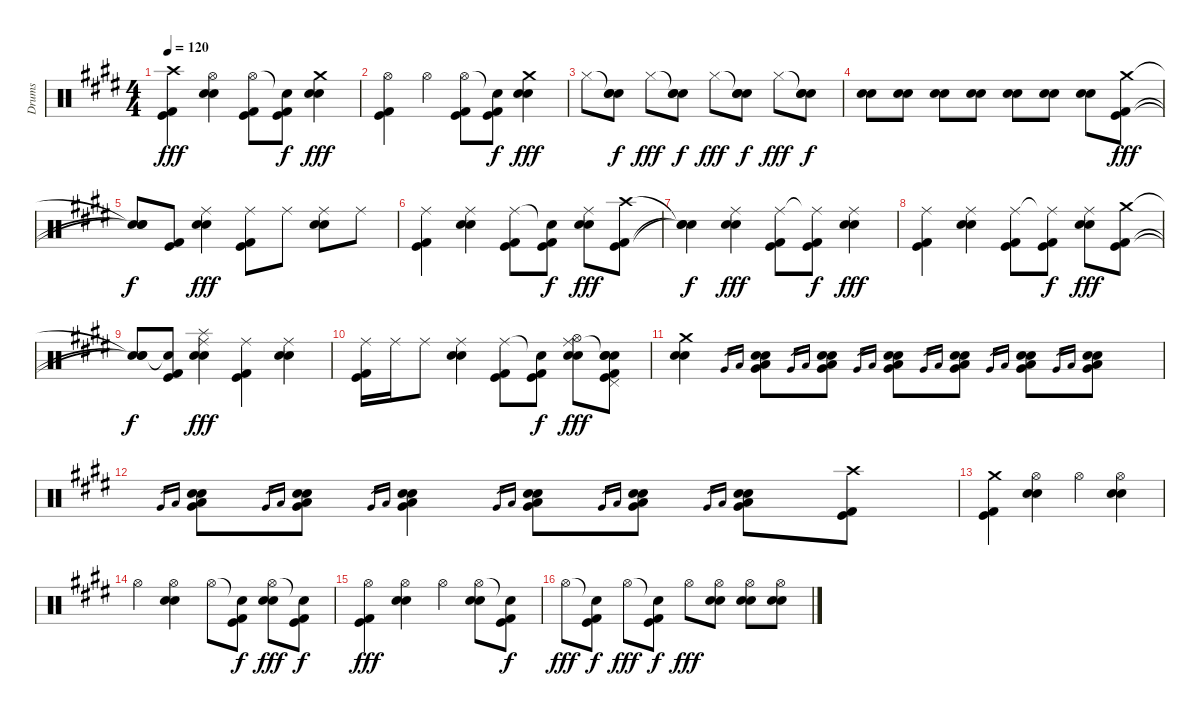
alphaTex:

\track ("Drums" "Drums") {instrument percussion}
\staff {score}
\articulation defaults
\ts (4 4)
\tempo 120
\clef neutral
\ks e
("Crash high (hit)" "Kick (hit)" "Kick (hit) 2").4{dy fff} ("Hi-Hat (open)" "Electric Snare (hit)" "Snare (hit) 2").4 ("Hi-Hat (open)" "Kick (hit)" "Kick (hit) 2").8 ("Snare (hit)"{t} "Kick (hit)" "Kick (hit) 2").8{dy f} ("Crash medium (hit)" "Electric Snare (hit)" "Snare (hit) 2").4{dy fff} |
("Hi-Hat (open)" "Kick (hit)" "Kick (hit) 2").4 "Hi-Hat (open)".4 ("Hi-Hat (open)" "Kick (hit)" "Kick (hit) 2").8 ("Snare (hit)"{t} "Kick (hit)" "Kick (hit) 2").8{dy f} ("Crash medium (hit)" "Electric Snare (hit)" "Snare (hit) 2").4{dy fff} |
"Hi-Hat (closed)".8 ("Snare (hit)"{t} "Electric Snare (hit)" "Snare (hit) 2").8{dy f} "Hi-Hat (closed)".8{dy fff} ("Snare (hit)"{t} "Electric Snare (hit)" "Snare (hit) 2").8{dy f} "Hi-Hat (closed)".8{dy fff} ("Snare (hit)"{t} "Electric Snare (hit)" "Snare (hit) 2").8{dy f} "Hi-Hat (closed)".8{dy fff} ("Snare (hit)"{t} "Electric Snare (hit)" "Snare (hit) 2").8{dy f} |
("Electric Snare (hit)" "Snare (hit) 2").8 ("Electric Snare (hit)" "Snare (hit) 2").8 ("Electric Snare (hit)" "Snare (hit) 2").8 ("Electric Snare (hit)" "Snare (hit) 2").8 ("Electric Snare (hit)" "Snare (hit) 2").8 ("Electric Snare (hit)" "Snare (hit) 2").8 ("Electric Snare (hit)" "Snare (hit) 2").8 ("Crash medium (hit)" "Kick (hit)" "Kick (hit) 2").8{dy fff} |
("Snare (hit)"{t} "Snare (hit)"{t} "Snare (hit)"{t}).8{dy f} ("Kick (hit)" "Kick (hit) 2").8 ("Ride (middle)" "Electric Snare (hit)" "Snare (hit) 2").4{dy fff} ("Ride (middle)" "Kick (hit)" "Kick (hit) 2").8 "Ride (middle)".8 ("Ride (middle)" "Electric Snare (hit)" "Snare (hit) 2").8 "Ride (middle)".8 |
("Ride (middle)" "Kick (hit)" "Kick (hit) 2").4 ("Ride (middle)" "Electric Snare (hit)" "Snare (hit) 2").4 ("Ride (middle)" "Kick (hit)" "Kick (hit) 2").8 ("Snare (hit)"{t} "Kick (hit)" "Kick (hit) 2").8{dy f} ("Ride (middle)" "Electric Snare (hit)" "Snare (hit) 2").8{dy fff} ("Crash high (hit)" "Kick (hit)" "Kick (hit) 2").8 |
("Snare (hit)"{t} "Snare (hit)"{t} "Snare (hit)"{t}).4{dy f} ("Ride (middle)" "Electric Snare (hit)" "Snare (hit) 2").4{dy fff} ("Ride (middle)" "Kick (hit)" "Kick (hit) 2").8 ("Ride (middle)"{t} "Kick (hit)" "Kick (hit) 2").8{dy f} ("Ride (middle)" "Electric Snare (hit)" "Snare (hit) 2").4{dy fff} |
("Ride (middle)" "Kick (hit)" "Kick (hit) 2").4 ("Ride (middle)" "Electric Snare (hit)" "Snare (hit) 2").4 ("Ride (middle)" "Kick (hit)" "Kick (hit) 2").8 ("Ride (middle)"{t} "Kick (hit)" "Kick (hit) 2").8{dy f} ("Ride (middle)" "Electric Snare (hit)" "Snare (hit) 2").8{dy fff} ("Crash medium (hit)" "Kick (hit)" "Kick (hit) 2").8 |
("Snare (hit)"{t} "Snare (hit)"{t} "Snare (hit)"{t}).8{dy f} ("Snare (hit)"{t} "Kick (hit)" "Kick (hit) 2").8 ("Ride (middle)" "Splash (hit)" "Electric Snare (hit)" "Snare (hit) 2").4{dy fff} ("Ride (middle)" "Kick (hit)" "Kick (hit) 2").4 ("Ride (middle)" "Electric Snare (hit)" "Snare (hit) 2").4 |
("Ride (middle)" "Kick (hit)" "Kick (hit) 2").16 "Ride (middle)".16 "Ride (middle)".8 ("Ride (middle)" "Electric Snare (hit)" "Snare (hit) 2").4 ("Ride (middle)" "Kick (hit)" "Kick (hit) 2").8 ("Snare (hit)"{t} "Kick (hit)" "Kick (hit) 2").8{dy f} ("Ride (middle)" "Hi-Hat (open)" "Electric Snare (hit)" "Snare (hit) 2").8{dy fff} ("Snare (hit)"{t} "Pedal Hi-Hat (hit)" "Electric Snare (hit)" "Snare (hit) 2" "Kick (hit)" "Kick (hit) 2").8 |
("Crash medium (hit)" "Electric Snare (hit)" "Snare (hit) 2").4 "Very Low Tom (hit)".16{gr} "Low Floor Tom (hit)".16{gr} ("Electric Snare (hit)" "Snare (hit) 2" "Very Low Tom (hit)" "Low Floor Tom (hit)").8 "Very Low Tom (hit)".16{gr} "Low Floor Tom (hit)".16{gr} ("Electric Snare (hit)" "Snare (hit) 2" "Very Low Tom (hit)" "Low Floor Tom (hit)").8 "Very Low Tom (hit)".16{gr} "Low Floor Tom (hit)".16{gr} ("Electric Snare (hit)" "Snare (hit) 2" "Very Low Tom (hit)" "Low Floor Tom (hit)").8 "Very Low Tom (hit)".16{gr} "Low Floor Tom (hit)".16{gr} ("Electric Snare (hit)" "Snare (hit) 2" "Very Low Tom (hit)" "Low Floor Tom (hit)").8 "Very Low Tom (hit)".16{gr} "Low Floor Tom (hit)".16{gr} ("Electric Snare (hit)" "Snare (hit) 2" "Very Low Tom (hit)" "Low Floor Tom (hit)").8 "Very Low Tom (hit)".16{gr} "Low Floor Tom (hit)".16{gr} ("Electric Snare (hit)" "Snare (hit) 2" "Very Low Tom (hit)" "Low Floor Tom (hit)").8 |
"Very Low Tom (hit)".16{gr} "Low Floor Tom (hit)".16{gr} ("Electric Snare (hit)" "Snare (hit) 2" "Very Low Tom (hit)" "Low Floor Tom (hit)").8 "Very Low Tom (hit)".16{gr} "Low Floor Tom (hit)".16{gr} ("Electric Snare (hit)" "Snare (hit) 2" "Very Low Tom (hit)" "Low Floor Tom (hit)").8 "Very Low Tom (hit)".16{gr} "Low Floor Tom (hit)".16{gr} ("Electric Snare (hit)" "Snare (hit) 2" "Very Low Tom (hit)" "Low Floor Tom (hit)").4 "Very Low Tom (hit)".16{gr} "Low Floor Tom (hit)".16{gr} ("Electric Snare (hit)" "Snare (hit) 2" "Very Low Tom (hit)" "Low Floor Tom (hit)").8 "Very Low Tom (hit)".16{gr} "Low Floor Tom (hit)".16{gr} ("Electric Snare (hit)" "Snare (hit) 2" "Very Low Tom (hit)" "Low Floor Tom (hit)").8 "Very Low Tom (hit)".16{gr} "Low Floor Tom (hit)".16{gr} ("Electric Snare (hit)" "Snare (hit) 2" "Very Low Tom (hit)" "Low Floor Tom (hit)").8 ("Crash high (hit)" "Kick (hit)" "Kick (hit) 2").8 |
("Crash medium (hit)" "Kick (hit)" "Kick (hit) 2").4 ("Hi-Hat (open)" "Electric Snare (hit)" "Snare (hit) 2").4 "Hi-Hat (open)".4 ("Hi-Hat (open)" "Electric Snare (hit)" "Snare (hit) 2").4 |
"Hi-Hat (open)".4 ("Hi-Hat (open)" "Electric Snare (hit)" "Snare (hit) 2").4 "Hi-Hat (open)".8 ("Snare (hit)"{t} "Kick (hit)" "Kick (hit) 2").8{dy f} ("Hi-Hat (open)" "Electric Snare (hit)" "Snare (hit) 2").8{dy fff} ("Snare (hit)"{t} "Kick (hit)" "Kick (hit) 2").8{dy f} |
("Hi-Hat (open)" "Kick (hit)" "Kick (hit) 2").4{dy fff} ("Hi-Hat (open)" "Electric Snare (hit)" "Snare (hit) 2").4 "Hi-Hat (open)".4 ("Hi-Hat (open)" "Electric Snare (hit)" "Snare (hit) 2").8 ("Snare (hit)"{t} "Kick (hit)" "Kick (hit) 2").8{dy f} |
"Hi-Hat (open)".8{dy fff} ("Snare (hit)"{t} "Kick (hit)" "Kick (hit) 2").8{dy f} "Hi-Hat (open)".8{dy fff} ("Snare (hit)"{t} "Kick (hit)" "Kick (hit) 2").8{dy f} "Hi-Hat (open)".8{dy fff} ("Hi-Hat (open)" "Electric Snare (hit)" "Snare (hit) 2").8 ("Hi-Hat (open)" "Electric Snare (hit)" "Snare (hit) 2").8 ("Hi-Hat (open)" "Electric Snare (hit)" "Snare (hit) 2").8
